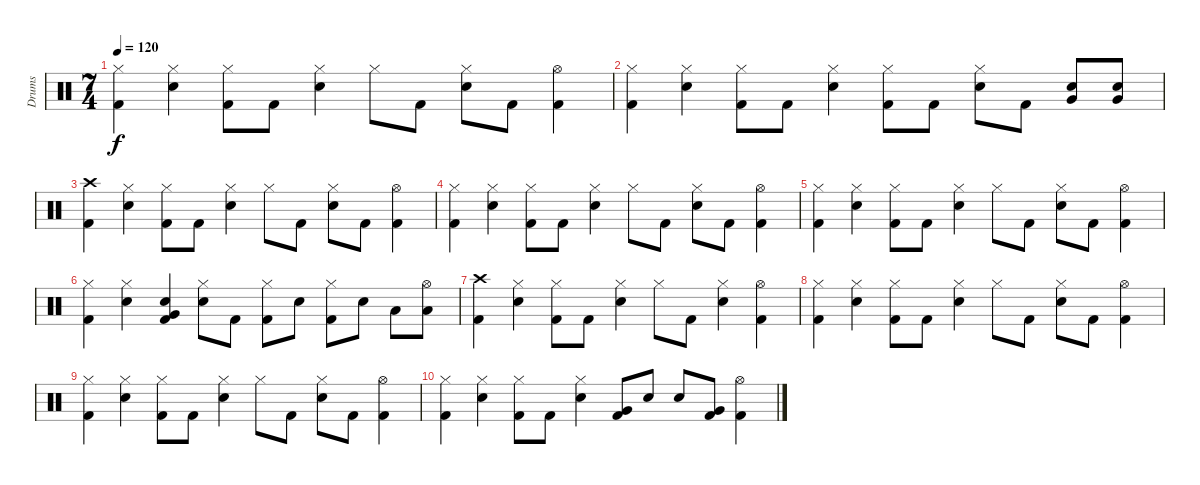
\track ("Drums" "Drums") {instrument percussion}
\staff {score}
\articulation defaults
\ts (7 4)
\tempo 120
\clef neutral
\ks c
("Hi-Hat (closed)" "Kick (hit) 2").4{dy f} ("Hi-Hat (closed)" "Snare (hit) 2").4 ("Hi-Hat (closed)" "Kick (hit) 2").8 "Kick (hit) 2".8 ("Hi-Hat (closed)" "Snare (hit) 2").4 "Hi-Hat (closed)".8 "Kick (hit) 2".8 ("Hi-Hat (closed)" "Snare (hit) 2").8 "Kick (hit) 2".8 ("Hi-Hat (open)" "Kick (hit) 2").4 |
("Hi-Hat (closed)" "Kick (hit) 2").4 ("Hi-Hat (closed)" "Snare (hit) 2").4 ("Hi-Hat (closed)" "Kick (hit) 2").8 "Kick (hit) 2".8 ("Hi-Hat (closed)" "Snare (hit) 2").4 ("Hi-Hat (closed)" "Kick (hit) 2").8 "Kick (hit) 2".8 ("Hi-Hat (closed)" "Snare (hit) 2").8 "Kick (hit) 2".8 ("Snare (hit) 2" "Very Low Tom (hit)").8 ("Snare (hit) 2" "Very Low Tom (hit)").8 |
("Crash high (hit)" "Kick (hit) 2").4 ("Hi-Hat (closed)" "Snare (hit) 2").4 ("Hi-Hat (closed)" "Kick (hit) 2").8 "Kick (hit) 2".8 ("Hi-Hat (closed)" "Snare (hit) 2").4 "Hi-Hat (closed)".8 "Kick (hit) 2".8 ("Hi-Hat (closed)" "Snare (hit) 2").8 "Kick (hit) 2".8 ("Hi-Hat (open)" "Kick (hit) 2").4 |
("Hi-Hat (closed)" "Kick (hit) 2").4 ("Hi-Hat (closed)" "Snare (hit) 2").4 ("Hi-Hat (closed)" "Kick (hit) 2").8 "Kick (hit) 2".8 ("Hi-Hat (closed)" "Snare (hit) 2").4 "Hi-Hat (closed)".8 "Kick (hit) 2".8 ("Hi-Hat (closed)" "Snare (hit) 2").8 "Kick (hit) 2".8 ("Hi-Hat (open)" "Kick (hit) 2").4 |
("Hi-Hat (closed)" "Kick (hit) 2").4 ("Hi-Hat (closed)" "Snare (hit) 2").4 ("Hi-Hat (closed)" "Kick (hit) 2").8 "Kick (hit) 2".8 ("Hi-Hat (closed)" "Snare (hit) 2").4 "Hi-Hat (closed)".8 "Kick (hit) 2".8 ("Hi-Hat (closed)" "Snare (hit) 2").8 "Kick (hit) 2".8 ("Hi-Hat (open)" "Kick (hit) 2").4 |
("Hi-Hat (closed)" "Kick (hit) 2").4 ("Hi-Hat (closed)" "Snare (hit) 2").4 ("Snare (hit) 2" "Very Low Tom (hit)" "Kick (hit) 2").4 ("Hi-Hat (closed)" "Snare (hit) 2").8 "Kick (hit) 2".8 ("Hi-Hat (closed)" "Kick (hit) 2").8 "Snare (hit) 2".8 ("Hi-Hat (closed)" "Kick (hit) 2").8 "Snare (hit) 2".8 "Low Tom (hit)".8 ("Hi-Hat (open)" "Low Tom (hit)").8 |
("Crash high (hit)" "Kick (hit) 2").4 ("Hi-Hat (closed)" "Snare (hit) 2").4 ("Hi-Hat (closed)" "Kick (hit) 2").8 "Kick (hit) 2".8 ("Hi-Hat (closed)" "Snare (hit) 2").4 "Hi-Hat (closed)".8 "Kick (hit) 2".8 ("Hi-Hat (closed)" "Snare (hit) 2").4 ("Hi-Hat (open)" "Kick (hit) 2").4 |
("Hi-Hat (closed)" "Kick (hit) 2").4 ("Hi-Hat (closed)" "Snare (hit) 2").4 ("Hi-Hat (closed)" "Kick (hit) 2").8 "Kick (hit) 2".8 ("Hi-Hat (closed)" "Snare (hit) 2").4 "Hi-Hat (closed)".8 "Kick (hit) 2".8 ("Hi-Hat (closed)" "Snare (hit) 2").8 "Kick (hit) 2".8 ("Hi-Hat (open)" "Kick (hit) 2").4 |
("Hi-Hat (closed)" "Kick (hit) 2").4 ("Hi-Hat (closed)" "Snare (hit) 2").4 ("Hi-Hat (closed)" "Kick (hit) 2").8 "Kick (hit) 2".8 ("Hi-Hat (closed)" "Snare (hit) 2").4 "Hi-Hat (closed)".8 "Kick (hit) 2".8 ("Hi-Hat (closed)" "Snare (hit) 2").8 "Kick (hit) 2".8 ("Hi-Hat (open)" "Kick (hit) 2").4 |
("Hi-Hat (closed)" "Kick (hit) 2").4 ("Hi-Hat (closed)" "Snare (hit) 2").4 ("Hi-Hat (closed)" "Kick (hit) 2").8 "Kick (hit) 2".8 ("Hi-Hat (closed)" "Snare (hit) 2").4 ("Very Low Tom (hit)" "Kick (hit) 2").8 "Snare (hit) 2".8 "Snare (hit) 2".8 ("Very Low Tom (hit)" "Kick (hit) 2").8 ("Hi-Hat (open)" "Kick (hit) 2").4
